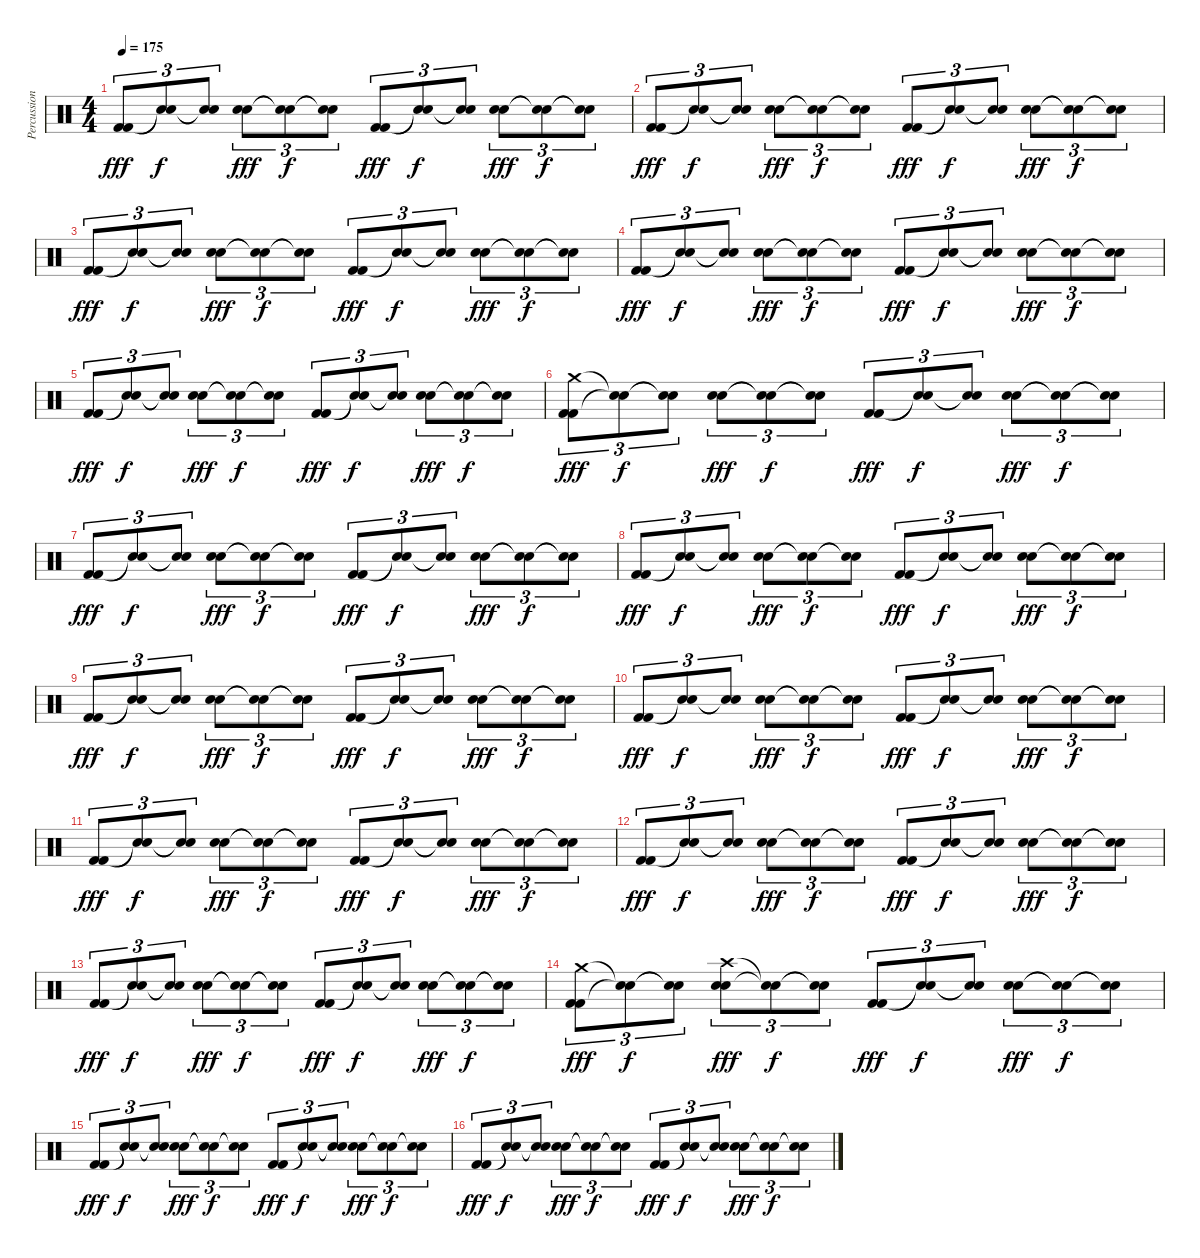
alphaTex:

\track ("Percussion" "Percussion") {instrument percussion}
\staff {score}
\articulation defaults
\ts (4 4)
\tempo 175
\clef neutral
\ks c
("Kick (hit) 2" "Kick (hit) 2").8{tu (3 2) dy fff} ("Snare (hit)"{t} "Snare (hit)"{t}).8{tu (3 2) dy f} ("Snare (hit)"{t} "Snare (hit)"{t}).8{tu (3 2)} ("Electric Snare (hit)" "Electric Snare (hit)").8{tu (3 2) dy fff} ("Snare (hit)"{t} "Snare (hit)"{t}).8{tu (3 2) dy f} ("Snare (hit)"{t} "Snare (hit)"{t}).8{tu (3 2)} ("Kick (hit) 2" "Kick (hit) 2").8{tu (3 2) dy fff} ("Snare (hit)"{t} "Snare (hit)"{t}).8{tu (3 2) dy f} ("Snare (hit)"{t} "Snare (hit)"{t}).8{tu (3 2)} ("Electric Snare (hit)" "Electric Snare (hit)").8{tu (3 2) dy fff} ("Snare (hit)"{t} "Snare (hit)"{t}).8{tu (3 2) dy f} ("Snare (hit)"{t} "Snare (hit)"{t}).8{tu (3 2)} |
("Kick (hit) 2" "Kick (hit) 2").8{tu (3 2) dy fff} ("Snare (hit)"{t} "Snare (hit)"{t}).8{tu (3 2) dy f} ("Snare (hit)"{t} "Snare (hit)"{t}).8{tu (3 2)} ("Electric Snare (hit)" "Electric Snare (hit)").8{tu (3 2) dy fff} ("Snare (hit)"{t} "Snare (hit)"{t}).8{tu (3 2) dy f} ("Snare (hit)"{t} "Snare (hit)"{t}).8{tu (3 2)} ("Kick (hit) 2" "Kick (hit) 2").8{tu (3 2) dy fff} ("Snare (hit)"{t} "Snare (hit)"{t}).8{tu (3 2) dy f} ("Snare (hit)"{t} "Snare (hit)"{t}).8{tu (3 2)} ("Electric Snare (hit)" "Electric Snare (hit)").8{tu (3 2) dy fff} ("Snare (hit)"{t} "Snare (hit)"{t}).8{tu (3 2) dy f} ("Snare (hit)"{t} "Snare (hit)"{t}).8{tu (3 2)} |
("Kick (hit) 2" "Kick (hit) 2").8{tu (3 2) dy fff} ("Snare (hit)"{t} "Snare (hit)"{t}).8{tu (3 2) dy f} ("Snare (hit)"{t} "Snare (hit)"{t}).8{tu (3 2)} ("Electric Snare (hit)" "Electric Snare (hit)").8{tu (3 2) dy fff} ("Snare (hit)"{t} "Snare (hit)"{t}).8{tu (3 2) dy f} ("Snare (hit)"{t} "Snare (hit)"{t}).8{tu (3 2)} ("Kick (hit) 2" "Kick (hit) 2").8{tu (3 2) dy fff} ("Snare (hit)"{t} "Snare (hit)"{t}).8{tu (3 2) dy f} ("Snare (hit)"{t} "Snare (hit)"{t}).8{tu (3 2)} ("Electric Snare (hit)" "Electric Snare (hit)").8{tu (3 2) dy fff} ("Snare (hit)"{t} "Snare (hit)"{t}).8{tu (3 2) dy f} ("Snare (hit)"{t} "Snare (hit)"{t}).8{tu (3 2)} |
("Kick (hit) 2" "Kick (hit) 2").8{tu (3 2) dy fff} ("Snare (hit)"{t} "Snare (hit)"{t}).8{tu (3 2) dy f} ("Snare (hit)"{t} "Snare (hit)"{t}).8{tu (3 2)} ("Electric Snare (hit)" "Electric Snare (hit)").8{tu (3 2) dy fff} ("Snare (hit)"{t} "Snare (hit)"{t}).8{tu (3 2) dy f} ("Snare (hit)"{t} "Snare (hit)"{t}).8{tu (3 2)} ("Kick (hit) 2" "Kick (hit) 2").8{tu (3 2) dy fff} ("Snare (hit)"{t} "Snare (hit)"{t}).8{tu (3 2) dy f} ("Snare (hit)"{t} "Snare (hit)"{t}).8{tu (3 2)} ("Electric Snare (hit)" "Electric Snare (hit)").8{tu (3 2) dy fff} ("Snare (hit)"{t} "Snare (hit)"{t}).8{tu (3 2) dy f} ("Snare (hit)"{t} "Snare (hit)"{t}).8{tu (3 2)} |
("Kick (hit) 2" "Kick (hit) 2").8{tu (3 2) dy fff} ("Snare (hit)"{t} "Snare (hit)"{t}).8{tu (3 2) dy f} ("Snare (hit)"{t} "Snare (hit)"{t}).8{tu (3 2)} ("Electric Snare (hit)" "Electric Snare (hit)").8{tu (3 2) dy fff} ("Snare (hit)"{t} "Snare (hit)"{t}).8{tu (3 2) dy f} ("Snare (hit)"{t} "Snare (hit)"{t}).8{tu (3 2)} ("Kick (hit) 2" "Kick (hit) 2").8{tu (3 2) dy fff} ("Snare (hit)"{t} "Snare (hit)"{t}).8{tu (3 2) dy f} ("Snare (hit)"{t} "Snare (hit)"{t}).8{tu (3 2)} ("Electric Snare (hit)" "Electric Snare (hit)").8{tu (3 2) dy fff} ("Snare (hit)"{t} "Snare (hit)"{t}).8{tu (3 2) dy f} ("Snare (hit)"{t} "Snare (hit)"{t}).8{tu (3 2)} |
("Kick (hit) 2" "Crash medium (hit)" "Kick (hit) 2").8{tu (3 2) dy fff} ("Snare (hit)"{t} "Snare (hit)"{t}).8{tu (3 2) dy f} ("Snare (hit)"{t} "Snare (hit)"{t}).8{tu (3 2)} ("Electric Snare (hit)" "Electric Snare (hit)").8{tu (3 2) dy fff} ("Snare (hit)"{t} "Snare (hit)"{t}).8{tu (3 2) dy f} ("Snare (hit)"{t} "Snare (hit)"{t}).8{tu (3 2)} ("Kick (hit) 2" "Kick (hit) 2").8{tu (3 2) dy fff} ("Snare (hit)"{t} "Snare (hit)"{t}).8{tu (3 2) dy f} ("Snare (hit)"{t} "Snare (hit)"{t}).8{tu (3 2)} ("Electric Snare (hit)" "Electric Snare (hit)").8{tu (3 2) dy fff} ("Snare (hit)"{t} "Snare (hit)"{t}).8{tu (3 2) dy f} ("Snare (hit)"{t} "Snare (hit)"{t}).8{tu (3 2)} |
("Kick (hit) 2" "Kick (hit) 2").8{tu (3 2) dy fff} ("Snare (hit)"{t} "Snare (hit)"{t}).8{tu (3 2) dy f} ("Snare (hit)"{t} "Snare (hit)"{t}).8{tu (3 2)} ("Electric Snare (hit)" "Electric Snare (hit)").8{tu (3 2) dy fff} ("Snare (hit)"{t} "Snare (hit)"{t}).8{tu (3 2) dy f} ("Snare (hit)"{t} "Snare (hit)"{t}).8{tu (3 2)} ("Kick (hit) 2" "Kick (hit) 2").8{tu (3 2) dy fff} ("Snare (hit)"{t} "Snare (hit)"{t}).8{tu (3 2) dy f} ("Snare (hit)"{t} "Snare (hit)"{t}).8{tu (3 2)} ("Electric Snare (hit)" "Electric Snare (hit)").8{tu (3 2) dy fff} ("Snare (hit)"{t} "Snare (hit)"{t}).8{tu (3 2) dy f} ("Snare (hit)"{t} "Snare (hit)"{t}).8{tu (3 2)} |
("Kick (hit) 2" "Kick (hit) 2").8{tu (3 2) dy fff} ("Snare (hit)"{t} "Snare (hit)"{t}).8{tu (3 2) dy f} ("Snare (hit)"{t} "Snare (hit)"{t}).8{tu (3 2)} ("Electric Snare (hit)" "Electric Snare (hit)").8{tu (3 2) dy fff} ("Snare (hit)"{t} "Snare (hit)"{t}).8{tu (3 2) dy f} ("Snare (hit)"{t} "Snare (hit)"{t}).8{tu (3 2)} ("Kick (hit) 2" "Kick (hit) 2").8{tu (3 2) dy fff} ("Snare (hit)"{t} "Snare (hit)"{t}).8{tu (3 2) dy f} ("Snare (hit)"{t} "Snare (hit)"{t}).8{tu (3 2)} ("Electric Snare (hit)" "Electric Snare (hit)").8{tu (3 2) dy fff} ("Snare (hit)"{t} "Snare (hit)"{t}).8{tu (3 2) dy f} ("Snare (hit)"{t} "Snare (hit)"{t}).8{tu (3 2)} |
("Kick (hit) 2" "Kick (hit) 2").8{tu (3 2) dy fff} ("Snare (hit)"{t} "Snare (hit)"{t}).8{tu (3 2) dy f} ("Snare (hit)"{t} "Snare (hit)"{t}).8{tu (3 2)} ("Electric Snare (hit)" "Electric Snare (hit)").8{tu (3 2) dy fff} ("Snare (hit)"{t} "Snare (hit)"{t}).8{tu (3 2) dy f} ("Snare (hit)"{t} "Snare (hit)"{t}).8{tu (3 2)} ("Kick (hit) 2" "Kick (hit) 2").8{tu (3 2) dy fff} ("Snare (hit)"{t} "Snare (hit)"{t}).8{tu (3 2) dy f} ("Snare (hit)"{t} "Snare (hit)"{t}).8{tu (3 2)} ("Electric Snare (hit)" "Electric Snare (hit)").8{tu (3 2) dy fff} ("Snare (hit)"{t} "Snare (hit)"{t}).8{tu (3 2) dy f} ("Snare (hit)"{t} "Snare (hit)"{t}).8{tu (3 2)} |
("Kick (hit) 2" "Kick (hit) 2").8{tu (3 2) dy fff} ("Snare (hit)"{t} "Snare (hit)"{t}).8{tu (3 2) dy f} ("Snare (hit)"{t} "Snare (hit)"{t}).8{tu (3 2)} ("Electric Snare (hit)" "Electric Snare (hit)").8{tu (3 2) dy fff} ("Snare (hit)"{t} "Snare (hit)"{t}).8{tu (3 2) dy f} ("Snare (hit)"{t} "Snare (hit)"{t}).8{tu (3 2)} ("Kick (hit) 2" "Kick (hit) 2").8{tu (3 2) dy fff} ("Snare (hit)"{t} "Snare (hit)"{t}).8{tu (3 2) dy f} ("Snare (hit)"{t} "Snare (hit)"{t}).8{tu (3 2)} ("Electric Snare (hit)" "Electric Snare (hit)").8{tu (3 2) dy fff} ("Snare (hit)"{t} "Snare (hit)"{t}).8{tu (3 2) dy f} ("Snare (hit)"{t} "Snare (hit)"{t}).8{tu (3 2)} |
("Kick (hit) 2" "Kick (hit) 2").8{tu (3 2) dy fff} ("Snare (hit)"{t} "Snare (hit)"{t}).8{tu (3 2) dy f} ("Snare (hit)"{t} "Snare (hit)"{t}).8{tu (3 2)} ("Electric Snare (hit)" "Electric Snare (hit)").8{tu (3 2) dy fff} ("Snare (hit)"{t} "Snare (hit)"{t}).8{tu (3 2) dy f} ("Snare (hit)"{t} "Snare (hit)"{t}).8{tu (3 2)} ("Kick (hit) 2" "Kick (hit) 2").8{tu (3 2) dy fff} ("Snare (hit)"{t} "Snare (hit)"{t}).8{tu (3 2) dy f} ("Snare (hit)"{t} "Snare (hit)"{t}).8{tu (3 2)} ("Electric Snare (hit)" "Electric Snare (hit)").8{tu (3 2) dy fff} ("Snare (hit)"{t} "Snare (hit)"{t}).8{tu (3 2) dy f} ("Snare (hit)"{t} "Snare (hit)"{t}).8{tu (3 2)} |
("Kick (hit) 2" "Kick (hit) 2").8{tu (3 2) dy fff} ("Snare (hit)"{t} "Snare (hit)"{t}).8{tu (3 2) dy f} ("Snare (hit)"{t} "Snare (hit)"{t}).8{tu (3 2)} ("Electric Snare (hit)" "Electric Snare (hit)").8{tu (3 2) dy fff} ("Snare (hit)"{t} "Snare (hit)"{t}).8{tu (3 2) dy f} ("Snare (hit)"{t} "Snare (hit)"{t}).8{tu (3 2)} ("Kick (hit) 2" "Kick (hit) 2").8{tu (3 2) dy fff} ("Snare (hit)"{t} "Snare (hit)"{t}).8{tu (3 2) dy f} ("Snare (hit)"{t} "Snare (hit)"{t}).8{tu (3 2)} ("Electric Snare (hit)" "Electric Snare (hit)").8{tu (3 2) dy fff} ("Snare (hit)"{t} "Snare (hit)"{t}).8{tu (3 2) dy f} ("Snare (hit)"{t} "Snare (hit)"{t}).8{tu (3 2)} |
("Kick (hit) 2" "Kick (hit) 2").8{tu (3 2) dy fff} ("Snare (hit)"{t} "Snare (hit)"{t}).8{tu (3 2) dy f} ("Snare (hit)"{t} "Snare (hit)"{t}).8{tu (3 2)} ("Electric Snare (hit)" "Electric Snare (hit)").8{tu (3 2) dy fff} ("Snare (hit)"{t} "Snare (hit)"{t}).8{tu (3 2) dy f} ("Snare (hit)"{t} "Snare (hit)"{t}).8{tu (3 2)} ("Kick (hit) 2" "Kick (hit) 2").8{tu (3 2) dy fff} ("Snare (hit)"{t} "Snare (hit)"{t}).8{tu (3 2) dy f} ("Snare (hit)"{t} "Snare (hit)"{t}).8{tu (3 2)} ("Electric Snare (hit)" "Electric Snare (hit)").8{tu (3 2) dy fff} ("Snare (hit)"{t} "Snare (hit)"{t}).8{tu (3 2) dy f} ("Snare (hit)"{t} "Snare (hit)"{t}).8{tu (3 2)} |
("Kick (hit) 2" "Crash medium (hit)" "Kick (hit) 2").8{tu (3 2) dy fff} ("Snare (hit)"{t} "Snare (hit)"{t}).8{tu (3 2) dy f} ("Snare (hit)"{t} "Snare (hit)"{t}).8{tu (3 2)} ("Electric Snare (hit)" "Crash high (hit)" "Electric Snare (hit)").8{tu (3 2) dy fff} ("Snare (hit)"{t} "Snare (hit)"{t}).8{tu (3 2) dy f} ("Snare (hit)"{t} "Snare (hit)"{t}).8{tu (3 2)} ("Kick (hit) 2" "Kick (hit) 2").8{tu (3 2) dy fff} ("Snare (hit)"{t} "Snare (hit)"{t}).8{tu (3 2) dy f} ("Snare (hit)"{t} "Snare (hit)"{t}).8{tu (3 2)} ("Electric Snare (hit)" "Electric Snare (hit)").8{tu (3 2) dy fff} ("Snare (hit)"{t} "Snare (hit)"{t}).8{tu (3 2) dy f} ("Snare (hit)"{t} "Snare (hit)"{t}).8{tu (3 2)} |
("Kick (hit) 2" "Kick (hit) 2").8{tu (3 2) dy fff} ("Snare (hit)"{t} "Snare (hit)"{t}).8{tu (3 2) dy f} ("Snare (hit)"{t} "Snare (hit)"{t}).8{tu (3 2)} ("Electric Snare (hit)" "Electric Snare (hit)").8{tu (3 2) dy fff} ("Snare (hit)"{t} "Snare (hit)"{t}).8{tu (3 2) dy f} ("Snare (hit)"{t} "Snare (hit)"{t}).8{tu (3 2)} ("Kick (hit) 2" "Kick (hit) 2").8{tu (3 2) dy fff} ("Snare (hit)"{t} "Snare (hit)"{t}).8{tu (3 2) dy f} ("Snare (hit)"{t} "Snare (hit)"{t}).8{tu (3 2)} ("Electric Snare (hit)" "Electric Snare (hit)").8{tu (3 2) dy fff} ("Snare (hit)"{t} "Snare (hit)"{t}).8{tu (3 2) dy f} ("Snare (hit)"{t} "Snare (hit)"{t}).8{tu (3 2)} |
("Kick (hit) 2" "Kick (hit) 2").8{tu (3 2) dy fff} ("Snare (hit)"{t} "Snare (hit)"{t}).8{tu (3 2) dy f} ("Snare (hit)"{t} "Snare (hit)"{t}).8{tu (3 2)} ("Electric Snare (hit)" "Electric Snare (hit)").8{tu (3 2) dy fff} ("Snare (hit)"{t} "Snare (hit)"{t}).8{tu (3 2) dy f} ("Snare (hit)"{t} "Snare (hit)"{t}).8{tu (3 2)} ("Kick (hit) 2" "Kick (hit) 2").8{tu (3 2) dy fff} ("Snare (hit)"{t} "Snare (hit)"{t}).8{tu (3 2) dy f} ("Snare (hit)"{t} "Snare (hit)"{t}).8{tu (3 2)} ("Electric Snare (hit)" "Electric Snare (hit)").8{tu (3 2) dy fff} ("Snare (hit)"{t} "Snare (hit)"{t}).8{tu (3 2) dy f} ("Snare (hit)"{t} "Snare (hit)"{t}).8{tu (3 2)}
